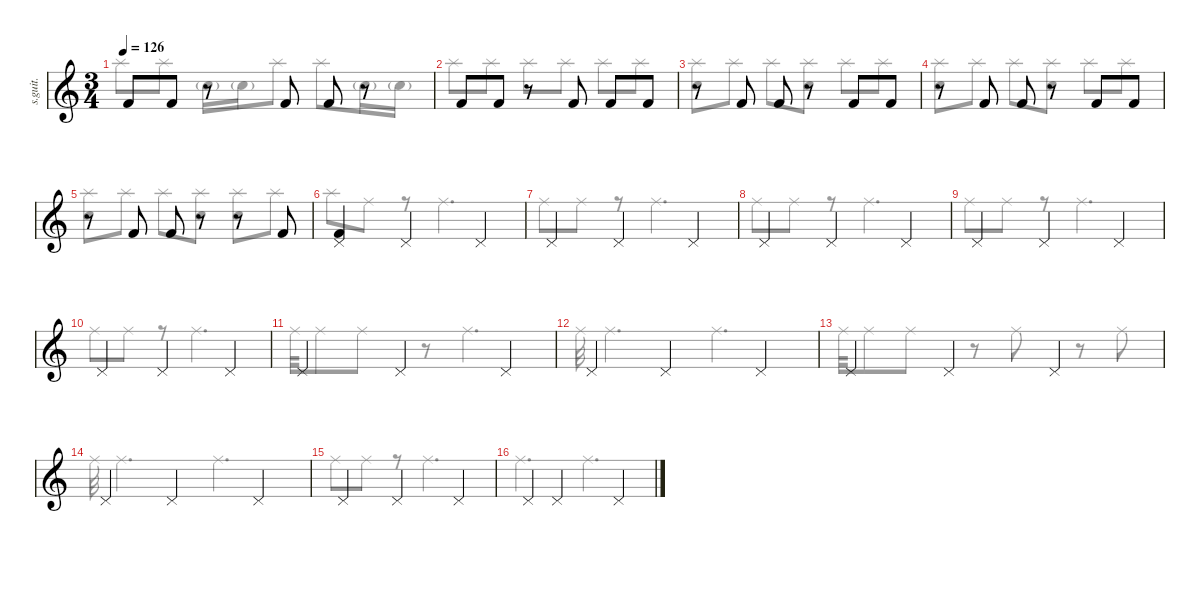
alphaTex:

\defaultSystemsLayout 4
\hideDynamics
\bracketExtendMode nobrackets
\track ("Percussion" "s.guit.") {instrument percussion}
\staff {score}
\articulation defaults
\voice
\ts (3 4)
\tempo 126
\clef g2
\ks c "Kick (hit) 2".8{lyrics (0 "") lyrics (1 "") lyrics (2 "") lyrics (3 "") lyrics (4 "") dy mf} "Kick (hit) 2".8{lyrics (0 "") lyrics (1 "") lyrics (2 "") lyrics (3 "") lyrics (4 "")}
r.8 "Kick (hit) 2".8{lyrics (0 "") lyrics (1 "") lyrics (2 "") lyrics (3 "") lyrics (4 "")} "Kick (hit) 2".8{lyrics (0 "") lyrics (1 "") lyrics (2 "") lyrics (3 "") lyrics (4 "")} r.8 |
"Kick (hit) 2".8{lyrics (0 "") lyrics (1 "") lyrics (2 "") lyrics (3 "") lyrics (4 "")} "Kick (hit) 2".8{lyrics (0 "") lyrics (1 "") lyrics (2 "") lyrics (3 "") lyrics (4 "")} r.8 "Kick (hit) 2".8{lyrics (0 "") lyrics (1 "") lyrics (2 "") lyrics (3 "") lyrics (4 "")} "Kick (hit) 2".8{lyrics (0 "") lyrics (1 "") lyrics (2 "") lyrics (3 "") lyrics (4 "")} "Kick (hit) 2".8{lyrics (0 "") lyrics (1 "") lyrics (2 "") lyrics (3 "") lyrics (4 "")} |
r.8 "Kick (hit) 2".8{lyrics (0 "") lyrics (1 "") lyrics (2 "") lyrics (3 "") lyrics (4 "")} "Kick (hit) 2".8{lyrics (0 "") lyrics (1 "") lyrics (2 "") lyrics (3 "") lyrics (4 "")} r.8 "Kick (hit) 2".8{lyrics (0 "") lyrics (1 "") lyrics (2 "") lyrics (3 "") lyrics (4 "")} "Kick (hit) 2".8{lyrics (0 "") lyrics (1 "") lyrics (2 "") lyrics (3 "") lyrics (4 "")} |
r.8 "Kick (hit) 2".8{lyrics (0 "") lyrics (1 "") lyrics (2 "") lyrics (3 "") lyrics (4 "")} "Kick (hit) 2".8{lyrics (0 "") lyrics (1 "") lyrics (2 "") lyrics (3 "") lyrics (4 "")} r.8 "Kick (hit) 2".8{lyrics (0 "") lyrics (1 "") lyrics (2 "") lyrics (3 "") lyrics (4 "")} "Kick (hit) 2".8{lyrics (0 "") lyrics (1 "") lyrics (2 "") lyrics (3 "") lyrics (4 "")} |
r.8 "Kick (hit) 2".8{lyrics (0 "") lyrics (1 "") lyrics (2 "") lyrics (3 "") lyrics (4 "")} "Kick (hit) 2".8{lyrics (0 "") lyrics (1 "") lyrics (2 "") lyrics (3 "") lyrics (4 "")} r.8 r.8 "Kick (hit) 2".8{lyrics (0 "") lyrics (1 "") lyrics (2 "") lyrics (3 "") lyrics (4 "")} |
("Pedal Hi-Hat (hit)" "Kick (hit) 2").4{lyrics (0 "") lyrics (1 "") lyrics (2 "") lyrics (3 "") lyrics (4 "")} "Pedal Hi-Hat (hit)".4{lyrics (0 "") lyrics (1 "") lyrics (2 "") lyrics (3 "") lyrics (4 "")} "Pedal Hi-Hat (hit)".4{lyrics (0 "") lyrics (1 "") lyrics (2 "") lyrics (3 "") lyrics (4 "")} |
"Pedal Hi-Hat (hit)".4{lyrics (0 "") lyrics (1 "") lyrics (2 "") lyrics (3 "") lyrics (4 "")} "Pedal Hi-Hat (hit)".4{lyrics (0 "") lyrics (1 "") lyrics (2 "") lyrics (3 "") lyrics (4 "")} "Pedal Hi-Hat (hit)".4{lyrics (0 "") lyrics (1 "") lyrics (2 "") lyrics (3 "") lyrics (4 "")} |
"Pedal Hi-Hat (hit)".4{lyrics (0 "") lyrics (1 "") lyrics (2 "") lyrics (3 "") lyrics (4 "")} "Pedal Hi-Hat (hit)".4{lyrics (0 "") lyrics (1 "") lyrics (2 "") lyrics (3 "") lyrics (4 "")} "Pedal Hi-Hat (hit)".4{lyrics (0 "") lyrics (1 "") lyrics (2 "") lyrics (3 "") lyrics (4 "")} |
"Pedal Hi-Hat (hit)".4{lyrics (0 "") lyrics (1 "") lyrics (2 "") lyrics (3 "") lyrics (4 "")} "Pedal Hi-Hat (hit)".4{lyrics (0 "") lyrics (1 "") lyrics (2 "") lyrics (3 "") lyrics (4 "")} "Pedal Hi-Hat (hit)".4{lyrics (0 "") lyrics (1 "") lyrics (2 "") lyrics (3 "") lyrics (4 "")} |
"Pedal Hi-Hat (hit)".4{lyrics (0 "") lyrics (1 "") lyrics (2 "") lyrics (3 "") lyrics (4 "")} "Pedal Hi-Hat (hit)".4{lyrics (0 "") lyrics (1 "") lyrics (2 "") lyrics (3 "") lyrics (4 "")} "Pedal Hi-Hat (hit)".4{lyrics (0 "") lyrics (1 "") lyrics (2 "") lyrics (3 "") lyrics (4 "")} |
"Pedal Hi-Hat (hit)".4{lyrics (0 "") lyrics (1 "") lyrics (2 "") lyrics (3 "") lyrics (4 "")} "Pedal Hi-Hat (hit)".4{lyrics (0 "") lyrics (1 "") lyrics (2 "") lyrics (3 "") lyrics (4 "")} "Pedal Hi-Hat (hit)".4{lyrics (0 "") lyrics (1 "") lyrics (2 "") lyrics (3 "") lyrics (4 "")} |
"Pedal Hi-Hat (hit)".4{lyrics (0 "") lyrics (1 "") lyrics (2 "") lyrics (3 "") lyrics (4 "")} "Pedal Hi-Hat (hit)".4{lyrics (0 "") lyrics (1 "") lyrics (2 "") lyrics (3 "") lyrics (4 "")} "Pedal Hi-Hat (hit)".4{lyrics (0 "") lyrics (1 "") lyrics (2 "") lyrics (3 "") lyrics (4 "")} |
"Pedal Hi-Hat (hit)".4{lyrics (0 "") lyrics (1 "") lyrics (2 "") lyrics (3 "") lyrics (4 "")} "Pedal Hi-Hat (hit)".4{lyrics (0 "") lyrics (1 "") lyrics (2 "") lyrics (3 "") lyrics (4 "")} "Pedal Hi-Hat (hit)".4{lyrics (0 "") lyrics (1 "") lyrics (2 "") lyrics (3 "") lyrics (4 "")} |
"Pedal Hi-Hat (hit)".4{lyrics (0 "") lyrics (1 "") lyrics (2 "") lyrics (3 "") lyrics (4 "")} "Pedal Hi-Hat (hit)".4{lyrics (0 "") lyrics (1 "") lyrics (2 "") lyrics (3 "") lyrics (4 "")} "Pedal Hi-Hat (hit)".4{lyrics (0 "") lyrics (1 "") lyrics (2 "") lyrics (3 "") lyrics (4 "")} |
"Pedal Hi-Hat (hit)".4{lyrics (0 "") lyrics (1 "") lyrics (2 "") lyrics (3 "") lyrics (4 "")} "Pedal Hi-Hat (hit)".4{lyrics (0 "") lyrics (1 "") lyrics (2 "") lyrics (3 "") lyrics (4 "")} "Pedal Hi-Hat (hit)".4{lyrics (0 "") lyrics (1 "") lyrics (2 "") lyrics (3 "") lyrics (4 "")} |
"Pedal Hi-Hat (hit)".4{lyrics (0 "") lyrics (1 "") lyrics (2 "") lyrics (3 "") lyrics (4 "")} "Pedal Hi-Hat (hit)".4{lyrics (0 "") lyrics (1 "") lyrics (2 "") lyrics (3 "") lyrics (4 "")} "Pedal Hi-Hat (hit)".4{lyrics (0 "") lyrics (1 "") lyrics (2 "") lyrics (3 "") lyrics (4 "")}
\voice
\clef g2
\ottava regular
\simile none
\ks c "Splash (hit)".8{lyrics (0 "") lyrics (1 "") lyrics (2 "") lyrics (3 "") lyrics (4 "") dy mf} "Splash (hit)".8{lyrics (0 "") lyrics (1 "") lyrics (2 "") lyrics (3 "") lyrics (4 "")} "Snare (hit) 2"{g}.16{lyrics (0 "") lyrics (1 "") lyrics (2 "") lyrics (3 "") lyrics (4 "")} "Snare (hit) 2"{g}.16{lyrics (0 "") lyrics (1 "") lyrics (2 "") lyrics (3 "") lyrics (4 "")} "Splash (hit)".8{lyrics (0 "") lyrics (1 "") lyrics (2 "") lyrics (3 "") lyrics (4 "")} "Splash (hit)".8{lyrics (0 "") lyrics (1 "") lyrics (2 "") lyrics (3 "") lyrics (4 "")} "Snare (hit) 2"{g}.16{lyrics (0 "") lyrics (1 "") lyrics (2 "") lyrics (3 "") lyrics (4 "")} "Snare (hit) 2"{g}.16{lyrics (0 "") lyrics (1 "") lyrics (2 "") lyrics (3 "") lyrics (4 "")}
|
"Splash (hit)".8{lyrics (0 "") lyrics (1 "") lyrics (2 "") lyrics (3 "") lyrics (4 "")} "Splash (hit)".8{lyrics (0 "") lyrics (1 "") lyrics (2 "") lyrics (3 "") lyrics (4 "")} "Splash (hit)".8{lyrics (0 "") lyrics (1 "") lyrics (2 "") lyrics (3 "") lyrics (4 "")} "Splash (hit)".8{lyrics (0 "") lyrics (1 "") lyrics (2 "") lyrics (3 "") lyrics (4 "")} "Splash (hit)".8{lyrics (0 "") lyrics (1 "") lyrics (2 "") lyrics (3 "") lyrics (4 "")} "Splash (hit)".8{lyrics (0 "") lyrics (1 "") lyrics (2 "") lyrics (3 "") lyrics (4 "")} |
("Splash (hit)" "Snare (hit) 2").8{lyrics (0 "") lyrics (1 "") lyrics (2 "") lyrics (3 "") lyrics (4 "")} "Splash (hit)".8{lyrics (0 "") lyrics (1 "") lyrics (2 "") lyrics (3 "") lyrics (4 "")} "Splash (hit)".8{lyrics (0 "") lyrics (1 "") lyrics (2 "") lyrics (3 "") lyrics (4 "")} ("Splash (hit)" "Snare (hit) 2").8{lyrics (0 "") lyrics (1 "") lyrics (2 "") lyrics (3 "") lyrics (4 "")} "Splash (hit)".8{lyrics (0 "") lyrics (1 "") lyrics (2 "") lyrics (3 "") lyrics (4 "")} "Splash (hit)".8{lyrics (0 "") lyrics (1 "") lyrics (2 "") lyrics (3 "") lyrics (4 "")} |
("Splash (hit)" "Snare (hit) 2").8{lyrics (0 "") lyrics (1 "") lyrics (2 "") lyrics (3 "") lyrics (4 "")} "Splash (hit)".8{lyrics (0 "") lyrics (1 "") lyrics (2 "") lyrics (3 "") lyrics (4 "")} "Splash (hit)".8{lyrics (0 "") lyrics (1 "") lyrics (2 "") lyrics (3 "") lyrics (4 "")} ("Splash (hit)" "Snare (hit) 2").8{lyrics (0 "") lyrics (1 "") lyrics (2 "") lyrics (3 "") lyrics (4 "")} "Splash (hit)".8{lyrics (0 "") lyrics (1 "") lyrics (2 "") lyrics (3 "") lyrics (4 "")} "Splash (hit)".8{lyrics (0 "") lyrics (1 "") lyrics (2 "") lyrics (3 "") lyrics (4 "")} |
("Splash (hit)" "Snare (hit) 2").8{lyrics (0 "") lyrics (1 "") lyrics (2 "") lyrics (3 "") lyrics (4 "")} "Splash (hit)".8{lyrics (0 "") lyrics (1 "") lyrics (2 "") lyrics (3 "") lyrics (4 "")} "Splash (hit)".8{lyrics (0 "") lyrics (1 "") lyrics (2 "") lyrics (3 "") lyrics (4 "")} ("Splash (hit)" "Snare (hit) 2").8{lyrics (0 "") lyrics (1 "") lyrics (2 "") lyrics (3 "") lyrics (4 "")} ("Splash (hit)" "Snare (hit) 2").8{lyrics (0 "") lyrics (1 "") lyrics (2 "") lyrics (3 "") lyrics (4 "")} "Splash (hit)".8{lyrics (0 "") lyrics (1 "") lyrics (2 "") lyrics (3 "") lyrics (4 "")} |
"Splash (hit)".8{lyrics (0 "") lyrics (1 "") lyrics (2 "") lyrics (3 "") lyrics (4 "")} "Ride (middle)".8{lyrics (0 "") lyrics (1 "") lyrics (2 "") lyrics (3 "") lyrics (4 "")} r.8 "Ride (middle)".4{d lyrics (0 "") lyrics (1 "") lyrics (2 "") lyrics (3 "") lyrics (4 "")} |
"Ride (middle)".8{lyrics (0 "") lyrics (1 "") lyrics (2 "") lyrics (3 "") lyrics (4 "")} "Ride (middle)".8{lyrics (0 "") lyrics (1 "") lyrics (2 "") lyrics (3 "") lyrics (4 "")} r.8 "Ride (middle)".4{d lyrics (0 "") lyrics (1 "") lyrics (2 "") lyrics (3 "") lyrics (4 "")} |
"Ride (middle)".8{lyrics (0 "") lyrics (1 "") lyrics (2 "") lyrics (3 "") lyrics (4 "")} "Ride (middle)".8{lyrics (0 "") lyrics (1 "") lyrics (2 "") lyrics (3 "") lyrics (4 "")} r.8 "Ride (middle)".4{d lyrics (0 "") lyrics (1 "") lyrics (2 "") lyrics (3 "") lyrics (4 "")} |
"Ride (middle)".8{lyrics (0 "") lyrics (1 "") lyrics (2 "") lyrics (3 "") lyrics (4 "")} "Ride (middle)".8{lyrics (0 "") lyrics (1 "") lyrics (2 "") lyrics (3 "") lyrics (4 "")} r.8 "Ride (middle)".4{d lyrics (0 "") lyrics (1 "") lyrics (2 "") lyrics (3 "") lyrics (4 "")} |
"Ride (middle)".8{lyrics (0 "") lyrics (1 "") lyrics (2 "") lyrics (3 "") lyrics (4 "")} "Ride (middle)".8{lyrics (0 "") lyrics (1 "") lyrics (2 "") lyrics (3 "") lyrics (4 "")} r.8 "Ride (middle)".4{d lyrics (0 "") lyrics (1 "") lyrics (2 "") lyrics (3 "") lyrics (4 "")} |
"Ride (middle)".32{lyrics (0 "") lyrics (1 "") lyrics (2 "") lyrics (3 "") lyrics (4 "")} "Ride (middle)".8{lyrics (0 "") lyrics (1 "") lyrics (2 "") lyrics (3 "") lyrics (4 "")} "Ride (middle)".8{lyrics (0 "") lyrics (1 "") lyrics (2 "") lyrics (3 "") lyrics (4 "")} r.8 "Ride (middle)".4{d lyrics (0 "") lyrics (1 "") lyrics (2 "") lyrics (3 "") lyrics (4 "")} |
"Ride (middle)".32{lyrics (0 "") lyrics (1 "") lyrics (2 "") lyrics (3 "") lyrics (4 "")} "Ride (middle)".4{d lyrics (0 "") lyrics (1 "") lyrics (2 "") lyrics (3 "") lyrics (4 "")} "Ride (middle)".4{d lyrics (0 "") lyrics (1 "") lyrics (2 "") lyrics (3 "") lyrics (4 "")} |
"Ride (middle)".32{lyrics (0 "") lyrics (1 "") lyrics (2 "") lyrics (3 "") lyrics (4 "")} "Ride (middle)".8{lyrics (0 "") lyrics (1 "") lyrics (2 "") lyrics (3 "") lyrics (4 "")} "Ride (middle)".8{lyrics (0 "") lyrics (1 "") lyrics (2 "") lyrics (3 "") lyrics (4 "")} r.8 "Ride (middle)".8{lyrics (0 "") lyrics (1 "") lyrics (2 "") lyrics (3 "") lyrics (4 "")} r.8 "Ride (middle)".8{lyrics (0 "") lyrics (1 "") lyrics (2 "") lyrics (3 "") lyrics (4 "")} |
"Ride (middle)".32{lyrics (0 "") lyrics (1 "") lyrics (2 "") lyrics (3 "") lyrics (4 "")} "Ride (middle)".4{d lyrics (0 "") lyrics (1 "") lyrics (2 "") lyrics (3 "") lyrics (4 "")} "Ride (middle)".4{d lyrics (0 "") lyrics (1 "") lyrics (2 "") lyrics (3 "") lyrics (4 "")} |
"Ride (middle)".8{lyrics (0 "") lyrics (1 "") lyrics (2 "") lyrics (3 "") lyrics (4 "")} "Ride (middle)".8{lyrics (0 "") lyrics (1 "") lyrics (2 "") lyrics (3 "") lyrics (4 "")} r.8 "Ride (middle)".4{d lyrics (0 "") lyrics (1 "") lyrics (2 "") lyrics (3 "") lyrics (4 "")} |
"Ride (middle)".4{d lyrics (0 "") lyrics (1 "") lyrics (2 "") lyrics (3 "") lyrics (4 "")} "Ride (middle)".4{d lyrics (0 "") lyrics (1 "") lyrics (2 "") lyrics (3 "") lyrics (4 "")}
